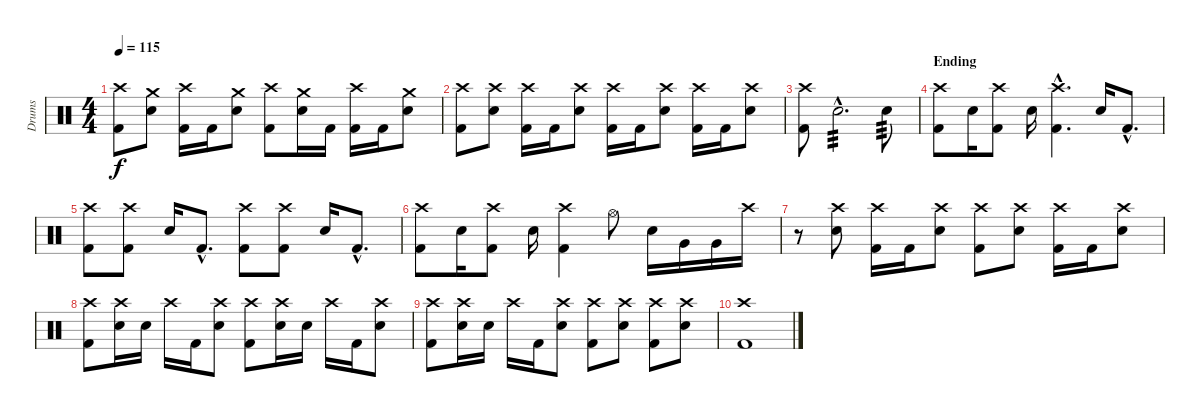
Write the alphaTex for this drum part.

\track ("Drums" "Drums") {instrument percussion}
\staff {score}
\articulation defaults
\ts (4 4)
\tempo 115
\clef neutral
\ks c
("Crash high (hit)" "Kick (hit) 2").8{dy f} ("Crash medium (hit)" "Electric Snare (hit)").8 ("Crash high (hit)" "Kick (hit) 2").16 "Kick (hit) 2".16 ("Crash medium (hit)" "Electric Snare (hit)").8 ("Crash high (hit)" "Kick (hit) 2").8 ("Crash medium (hit)" "Electric Snare (hit)").16 "Kick (hit) 2".16 ("Crash high (hit)" "Kick (hit) 2").16 "Kick (hit) 2".16 ("Crash medium (hit)" "Electric Snare (hit)").8 |
("Crash high (hit)" "Kick (hit) 2").8 ("Crash high (hit)" "Electric Snare (hit)").8 ("Crash high (hit)" "Kick (hit) 2").16 "Kick (hit) 2".16 ("Crash high (hit)" "Electric Snare (hit)").8 ("Crash high (hit)" "Kick (hit) 2").16 "Kick (hit) 2".16 ("Crash high (hit)" "Electric Snare (hit)").8 ("Crash high (hit)" "Kick (hit) 2").16 "Kick (hit) 2".16 ("Crash high (hit)" "Electric Snare (hit)").8 |
("Crash high (hit)" "Kick (hit) 2").8 "Electric Snare (hit)"{hac}.2{d tp 3} "Electric Snare (hit)".8{tp 3} |
\section ("" "Ending")
("Crash high (hit)" "Kick (hit) 2").8 "Electric Snare (hit)".16 ("Crash high (hit)" "Kick (hit) 2").8 "Electric Snare (hit)".16 ("Crash high (hit)"{hac} "Kick (hit) 2"{hac}).4{d} "Electric Snare (hit)".16 "Kick (hit) 2"{hac}.8{d} |
("Crash high (hit)" "Kick (hit) 2").8 ("Crash high (hit)" "Kick (hit) 2").8 "Electric Snare (hit)".16 "Kick (hit) 2"{hac}.8{d} ("Crash high (hit)" "Kick (hit) 2").8 ("Crash high (hit)" "Kick (hit) 2").8 "Electric Snare (hit)".16 "Kick (hit) 2"{hac}.8{d} |
("Crash high (hit)" "Kick (hit) 2").8 "Electric Snare (hit)".16 ("Crash high (hit)" "Kick (hit) 2").8 "Electric Snare (hit)".16 ("Crash high (hit)" "Kick (hit) 2").4 "Hi-Hat (open)".8 "Electric Snare (hit)".16 "Very Low Tom (hit)".16 "Very Low Tom (hit)".16 "Crash high (hit)".16 |
r.8 ("Crash high (hit)" "Electric Snare (hit)").8 ("Crash high (hit)" "Kick (hit) 2").16 "Kick (hit) 2".16 ("Crash high (hit)" "Electric Snare (hit)").8 ("Crash high (hit)" "Kick (hit) 2").8 ("Crash high (hit)" "Electric Snare (hit)").8 ("Crash high (hit)" "Kick (hit) 2").16 "Kick (hit) 2".16 ("Crash high (hit)" "Electric Snare (hit)").8 |
("Crash high (hit)" "Kick (hit) 2").8 ("Crash high (hit)" "Electric Snare (hit)").16 "Electric Snare (hit)".16 "Crash high (hit)".16 "Kick (hit) 2".16 ("Crash high (hit)" "Electric Snare (hit)").8 ("Crash high (hit)" "Kick (hit) 2").8 ("Crash high (hit)" "Electric Snare (hit)").16 "Electric Snare (hit)".16 "Crash high (hit)".16 "Kick (hit) 2".16 ("Crash high (hit)" "Electric Snare (hit)").8 |
("Crash high (hit)" "Kick (hit) 2").8 ("Crash high (hit)" "Electric Snare (hit)").16 "Electric Snare (hit)".16 "Crash high (hit)".16 "Kick (hit) 2".16 ("Crash high (hit)" "Electric Snare (hit)").8 ("Crash high (hit)" "Kick (hit) 2").8 ("Crash high (hit)" "Electric Snare (hit)").8 ("Crash high (hit)" "Kick (hit) 2").8 ("Crash high (hit)" "Electric Snare (hit)").8 |
("Crash high (hit)" "Kick (hit) 2").1
